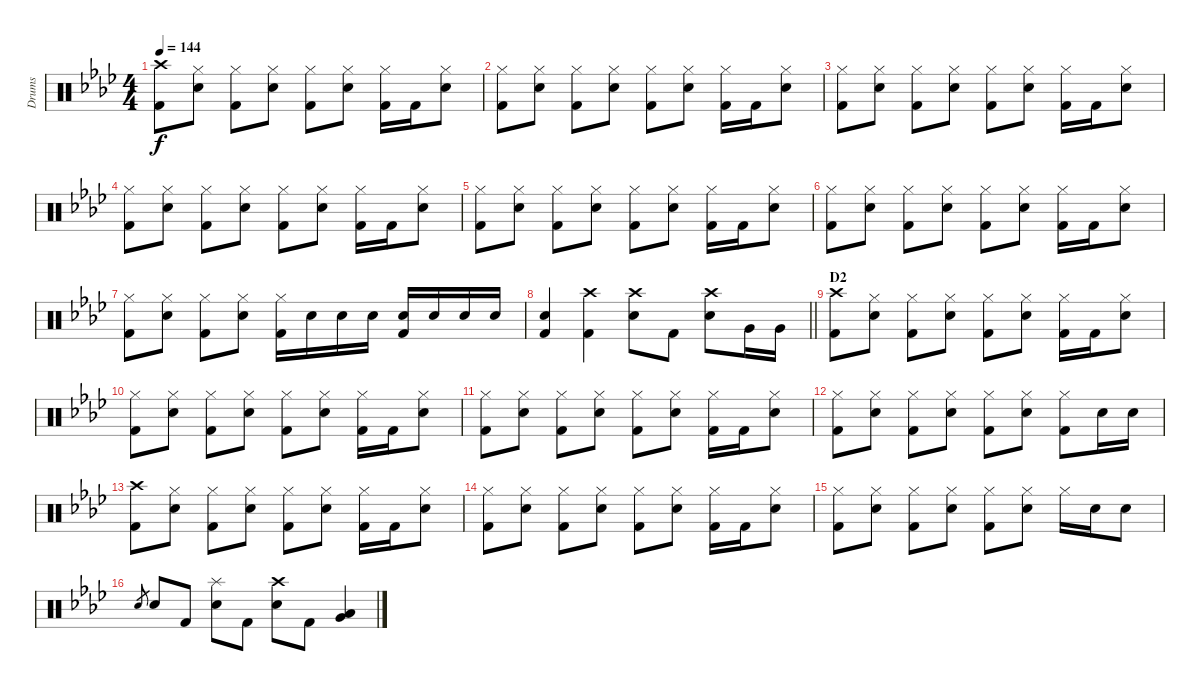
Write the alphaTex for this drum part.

\track ("Drums" "Drums") {instrument percussion}
\staff {score}
\articulation defaults
\ts (4 4)
\tempo 144
\clef neutral
\ks ab
("Crash high (hit)" "Kick (hit) 2").8{dy f} ("Hi-Hat (closed)" "Snare (hit) 2").8 ("Hi-Hat (closed)" "Kick (hit) 2").8 ("Hi-Hat (closed)" "Snare (hit) 2").8 ("Hi-Hat (closed)" "Kick (hit) 2").8 ("Hi-Hat (closed)" "Snare (hit) 2").8 ("Hi-Hat (closed)" "Kick (hit) 2").16 "Kick (hit) 2".16 ("Hi-Hat (closed)" "Snare (hit) 2").8 |
("Hi-Hat (closed)" "Kick (hit) 2").8 ("Hi-Hat (closed)" "Snare (hit) 2").8 ("Hi-Hat (closed)" "Kick (hit) 2").8 ("Hi-Hat (closed)" "Snare (hit) 2").8 ("Hi-Hat (closed)" "Kick (hit) 2").8 ("Hi-Hat (closed)" "Snare (hit) 2").8 ("Hi-Hat (closed)" "Kick (hit) 2").16 "Kick (hit) 2".16 ("Hi-Hat (closed)" "Snare (hit) 2").8 |
("Hi-Hat (closed)" "Kick (hit) 2").8 ("Hi-Hat (closed)" "Snare (hit) 2").8 ("Hi-Hat (closed)" "Kick (hit) 2").8 ("Hi-Hat (closed)" "Snare (hit) 2").8 ("Hi-Hat (closed)" "Kick (hit) 2").8 ("Hi-Hat (closed)" "Snare (hit) 2").8 ("Hi-Hat (closed)" "Kick (hit) 2").16 "Kick (hit) 2".16 ("Hi-Hat (closed)" "Snare (hit) 2").8 |
("Hi-Hat (closed)" "Kick (hit) 2").8 ("Hi-Hat (closed)" "Snare (hit) 2").8 ("Hi-Hat (closed)" "Kick (hit) 2").8 ("Hi-Hat (closed)" "Snare (hit) 2").8 ("Hi-Hat (closed)" "Kick (hit) 2").8 ("Hi-Hat (closed)" "Snare (hit) 2").8 ("Hi-Hat (closed)" "Kick (hit) 2").16 "Kick (hit) 2".16 ("Hi-Hat (closed)" "Snare (hit) 2").8 |
("Hi-Hat (closed)" "Kick (hit) 2").8 ("Hi-Hat (closed)" "Snare (hit) 2").8 ("Hi-Hat (closed)" "Kick (hit) 2").8 ("Hi-Hat (closed)" "Snare (hit) 2").8 ("Hi-Hat (closed)" "Kick (hit) 2").8 ("Hi-Hat (closed)" "Snare (hit) 2").8 ("Hi-Hat (closed)" "Kick (hit) 2").16 "Kick (hit) 2".16 ("Hi-Hat (closed)" "Snare (hit) 2").8 |
("Hi-Hat (closed)" "Kick (hit) 2").8 ("Hi-Hat (closed)" "Snare (hit) 2").8 ("Hi-Hat (closed)" "Kick (hit) 2").8 ("Hi-Hat (closed)" "Snare (hit) 2").8 ("Hi-Hat (closed)" "Kick (hit) 2").8 ("Hi-Hat (closed)" "Snare (hit) 2").8 ("Hi-Hat (closed)" "Kick (hit) 2").16 "Kick (hit) 2".16 ("Hi-Hat (closed)" "Snare (hit) 2").8 |
("Hi-Hat (closed)" "Kick (hit) 2").8 ("Hi-Hat (closed)" "Snare (hit) 2").8 ("Hi-Hat (closed)" "Kick (hit) 2").8 ("Hi-Hat (closed)" "Snare (hit) 2").8 ("Hi-Hat (closed)" "Kick (hit) 2").16 "Snare (hit) 2".16 "Snare (hit) 2".16 "Snare (hit) 2".16 ("Snare (hit) 2" "Kick (hit) 2").16 "Snare (hit) 2".16 "Snare (hit) 2".16 "Snare (hit) 2".16 |
\barLineRight lightlight
("Snare (hit) 2" "Kick (hit) 2").4 ("Crash high (hit)" "Kick (hit) 2").4 ("Crash high (hit)" "Snare (hit) 2").8 "Kick (hit) 2".8 ("Crash high (hit)" "Snare (hit) 2").8 "Very Low Tom (hit)".16 "Very Low Tom (hit)".16 |
\section ("" "D2")
("Crash high (hit)" "Kick (hit) 2").8 ("Hi-Hat (closed)" "Snare (hit) 2").8 ("Hi-Hat (closed)" "Kick (hit) 2").8 ("Hi-Hat (closed)" "Snare (hit) 2").8 ("Hi-Hat (closed)" "Kick (hit) 2").8 ("Hi-Hat (closed)" "Snare (hit) 2").8 ("Hi-Hat (closed)" "Kick (hit) 2").16 "Kick (hit) 2".16 ("Hi-Hat (closed)" "Snare (hit) 2").8 |
("Hi-Hat (closed)" "Kick (hit) 2").8 ("Hi-Hat (closed)" "Snare (hit) 2").8 ("Hi-Hat (closed)" "Kick (hit) 2").8 ("Hi-Hat (closed)" "Snare (hit) 2").8 ("Hi-Hat (closed)" "Kick (hit) 2").8 ("Hi-Hat (closed)" "Snare (hit) 2").8 ("Hi-Hat (closed)" "Kick (hit) 2").16 "Kick (hit) 2".16 ("Hi-Hat (closed)" "Snare (hit) 2").8 |
("Hi-Hat (closed)" "Kick (hit) 2").8 ("Hi-Hat (closed)" "Snare (hit) 2").8 ("Hi-Hat (closed)" "Kick (hit) 2").8 ("Hi-Hat (closed)" "Snare (hit) 2").8 ("Hi-Hat (closed)" "Kick (hit) 2").8 ("Hi-Hat (closed)" "Snare (hit) 2").8 ("Hi-Hat (closed)" "Kick (hit) 2").16 "Kick (hit) 2".16 ("Hi-Hat (closed)" "Snare (hit) 2").8 |
("Hi-Hat (closed)" "Kick (hit) 2").8 ("Hi-Hat (closed)" "Snare (hit) 2").8 ("Hi-Hat (closed)" "Kick (hit) 2").8 ("Hi-Hat (closed)" "Snare (hit) 2").8 ("Hi-Hat (closed)" "Kick (hit) 2").8 ("Hi-Hat (closed)" "Snare (hit) 2").8 ("Hi-Hat (closed)" "Kick (hit) 2").8 "Snare (hit) 2".16 "Snare (hit) 2".16 |
("Crash high (hit)" "Kick (hit) 2").8 ("Hi-Hat (closed)" "Snare (hit) 2").8 ("Hi-Hat (closed)" "Kick (hit) 2").8 ("Hi-Hat (closed)" "Snare (hit) 2").8 ("Hi-Hat (closed)" "Kick (hit) 2").8 ("Hi-Hat (closed)" "Snare (hit) 2").8 ("Hi-Hat (closed)" "Kick (hit) 2").16 "Kick (hit) 2".16 ("Hi-Hat (closed)" "Snare (hit) 2").8 |
("Hi-Hat (closed)" "Kick (hit) 2").8 ("Hi-Hat (closed)" "Snare (hit) 2").8 ("Hi-Hat (closed)" "Kick (hit) 2").8 ("Hi-Hat (closed)" "Snare (hit) 2").8 ("Hi-Hat (closed)" "Kick (hit) 2").8 ("Hi-Hat (closed)" "Snare (hit) 2").8 ("Hi-Hat (closed)" "Kick (hit) 2").16 "Kick (hit) 2".16 ("Hi-Hat (closed)" "Snare (hit) 2").8 |
("Hi-Hat (closed)" "Kick (hit) 2").8 ("Hi-Hat (closed)" "Snare (hit) 2").8 ("Hi-Hat (closed)" "Kick (hit) 2").8 ("Hi-Hat (closed)" "Snare (hit) 2").8 ("Hi-Hat (closed)" "Kick (hit) 2").8 ("Hi-Hat (closed)" "Snare (hit) 2").8 "Hi-Hat (closed)".16 "Snare (hit) 2".16 "Snare (hit) 2".8 |
"Snare (hit) 2".8{gr} "Snare (hit) 2".8 "Kick (hit) 2".8 ("Splash (hit)" "Snare (hit) 2").8 "Kick (hit) 2".8 ("Crash high (hit)" "Snare (hit) 2").8 "Kick (hit) 2".8 ("Low Tom (hit)" "Very Low Tom (hit)").4
